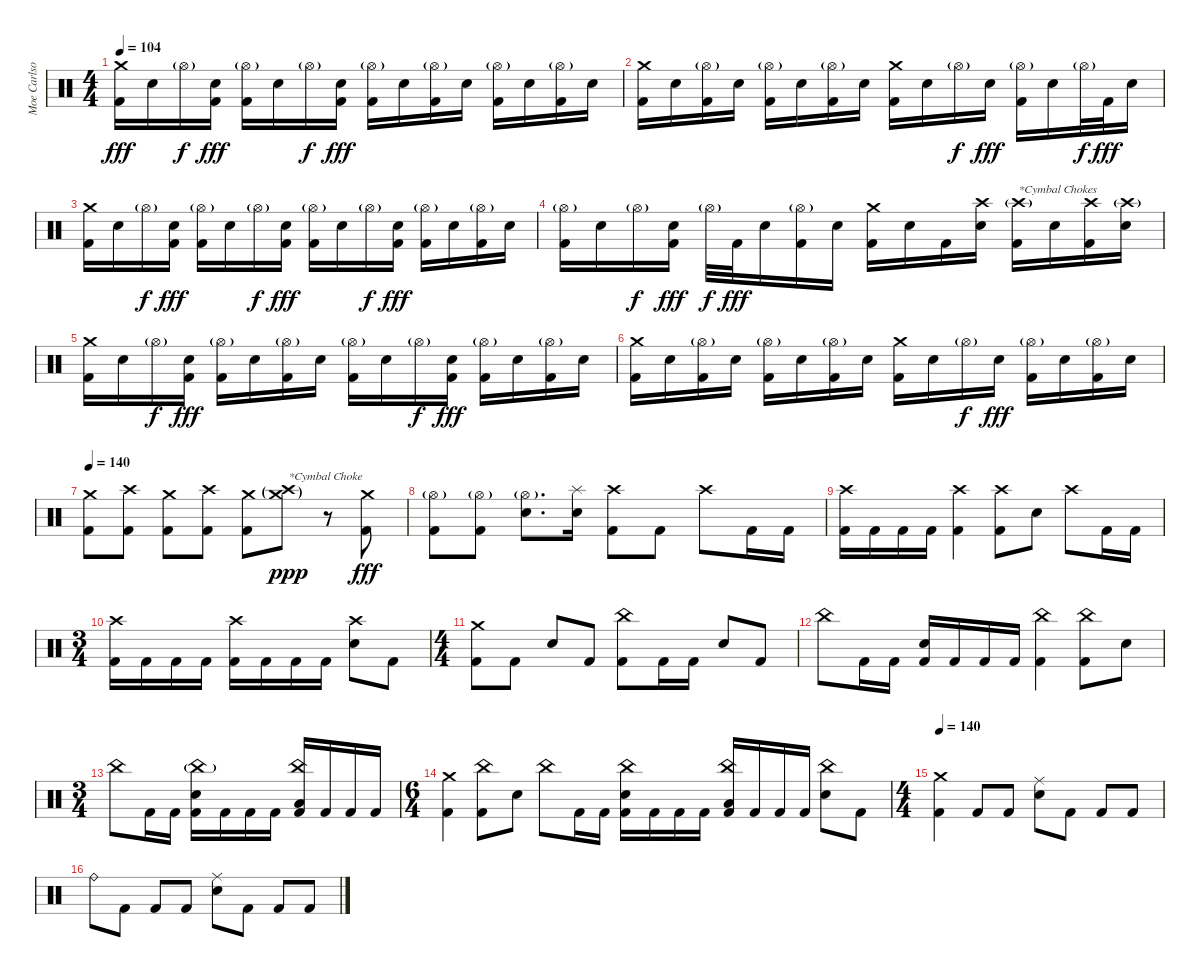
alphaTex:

\track ("Moe Carlson" "Moe Carlso") {instrument percussion}
\staff {score}
\articulation defaults
\ts (4 4)
\tempo 104
\clef neutral
\ks c
("Crash medium (hit)" "Kick (hit) 2").16{dy fff} "Electric Snare (hit)".16 "Hi-Hat (open)"{g}.16{dy f} ("Electric Snare (hit)" "Kick (hit) 2").16{dy fff} ("Hi-Hat (open)"{g} "Kick (hit) 2").16 "Electric Snare (hit)".16 "Hi-Hat (open)"{g}.16{dy f} ("Electric Snare (hit)" "Kick (hit) 2").16{dy fff} ("Hi-Hat (open)"{g} "Kick (hit) 2").16 "Electric Snare (hit)".16 ("Hi-Hat (open)"{g} "Kick (hit) 2").16 "Electric Snare (hit)".16 ("Hi-Hat (open)"{g} "Kick (hit) 2").16 "Electric Snare (hit)".16 ("Hi-Hat (open)"{g} "Kick (hit) 2").16 "Electric Snare (hit)".16 |
("Crash medium (hit)" "Kick (hit) 2").16 "Electric Snare (hit)".16 ("Hi-Hat (open)"{g} "Kick (hit) 2").16 "Electric Snare (hit)".16 ("Hi-Hat (open)"{g} "Kick (hit) 2").16 "Electric Snare (hit)".16 ("Hi-Hat (open)"{g} "Kick (hit) 2").16 "Electric Snare (hit)".16 ("Crash medium (hit)" "Kick (hit) 2").16 "Electric Snare (hit)".16 "Hi-Hat (open)"{g}.16{dy f} "Electric Snare (hit)".16{dy fff} ("Hi-Hat (open)"{g} "Kick (hit) 2").16 "Electric Snare (hit)".16 "Hi-Hat (open)"{g}.32{dy f} "Kick (hit) 2".32{dy fff} "Electric Snare (hit)".16 |
("Crash medium (hit)" "Kick (hit) 2").16 "Electric Snare (hit)".16 "Hi-Hat (open)"{g}.16{dy f} ("Electric Snare (hit)" "Kick (hit) 2").16{dy fff} ("Hi-Hat (open)"{g} "Kick (hit) 2").16 "Electric Snare (hit)".16 "Hi-Hat (open)"{g}.16{dy f} ("Electric Snare (hit)" "Kick (hit) 2").16{dy fff} ("Hi-Hat (open)"{g} "Kick (hit) 2").16 "Electric Snare (hit)".16 "Hi-Hat (open)"{g}.16{dy f} ("Electric Snare (hit)" "Kick (hit) 2").16{dy fff} ("Hi-Hat (open)"{g} "Kick (hit) 2").16 "Electric Snare (hit)".16 ("Hi-Hat (open)"{g} "Kick (hit) 2").16 "Electric Snare (hit)".16 |
("Hi-Hat (open)"{g} "Kick (hit) 2").16 "Electric Snare (hit)".16 "Hi-Hat (open)"{g}.16{dy f} ("Electric Snare (hit)" "Kick (hit) 2").16{dy fff} "Hi-Hat (open)"{g}.32{dy f} "Kick (hit) 2".32{dy fff} "Electric Snare (hit)".16 ("Hi-Hat (open)"{g} "Kick (hit) 2").16 "Electric Snare (hit)".16 ("Crash medium (hit)" "Kick (hit) 2").16 "Electric Snare (hit)".16 "Kick (hit) 2".16 ("Crash high (hit)" "Electric Snare (hit)").16 ("Crash high (hit)"{g} "Kick (hit) 2").16{txt "*Cymbal Chokes"} "Electric Snare (hit)".16 ("Crash high (hit)" "Kick (hit) 2").16 ("Crash high (hit)"{g} "Electric Snare (hit)").16 |
("Crash medium (hit)" "Kick (hit) 2").16 "Electric Snare (hit)".16 "Hi-Hat (open)"{g}.16{dy f} ("Electric Snare (hit)" "Kick (hit) 2").16{dy fff} ("Hi-Hat (open)"{g} "Kick (hit) 2").16 "Electric Snare (hit)".16 ("Hi-Hat (open)"{g} "Kick (hit) 2").16 "Electric Snare (hit)".16 ("Hi-Hat (open)"{g} "Kick (hit) 2").16 "Electric Snare (hit)".16 "Hi-Hat (open)"{g}.16{dy f} ("Electric Snare (hit)" "Kick (hit) 2").16{dy fff} ("Hi-Hat (open)"{g} "Kick (hit) 2").16 "Electric Snare (hit)".16 ("Hi-Hat (open)"{g} "Kick (hit) 2").16 "Electric Snare (hit)".16 |
("Crash medium (hit)" "Kick (hit) 2").16 "Electric Snare (hit)".16 ("Hi-Hat (open)"{g} "Kick (hit) 2").16 "Electric Snare (hit)".16 ("Hi-Hat (open)"{g} "Kick (hit) 2").16 "Electric Snare (hit)".16 ("Hi-Hat (open)"{g} "Kick (hit) 2").16 "Electric Snare (hit)".16 ("Crash medium (hit)" "Kick (hit) 2").16 "Electric Snare (hit)".16 "Hi-Hat (open)"{g}.16{dy f} "Electric Snare (hit)".16{dy fff} ("Hi-Hat (open)"{g} "Kick (hit) 2").16 "Electric Snare (hit)".16 ("Hi-Hat (open)"{g} "Kick (hit) 2").16 "Electric Snare (hit)".16 |
\tempo 140
("Crash medium (hit)" "Kick (hit) 2").8 ("Crash high (hit)" "Kick (hit) 2").8 ("Crash medium (hit)" "Kick (hit) 2").8 ("Crash high (hit)" "Kick (hit) 2").8 ("Crash medium (hit)" "Kick (hit) 2").8 ("Crash medium (hit)"{g} "Crash high (hit)"{g}).8{txt "*Cymbal Choke" dy ppp} r.8 ("Crash medium (hit)" "Kick (hit) 2").8{dy fff} |
("Hi-Hat (open)"{g} "Kick (hit) 2").8 ("Hi-Hat (open)"{g} "Kick (hit) 2").8 ("Hi-Hat (open)"{g} "Electric Snare (hit)").8{d} ("Splash (hit)" "Electric Snare (hit)").16 ("Crash high (hit)" "Kick (hit) 2").8 "Kick (hit) 2".8 "Crash high (hit)".8 "Kick (hit) 2".16 "Kick (hit) 2".16 |
("Crash high (hit)" "Kick (hit) 2").16 "Kick (hit) 2".16 "Kick (hit) 2".16 "Kick (hit) 2".16 ("Crash high (hit)" "Kick (hit) 2").4 ("Crash high (hit)" "Kick (hit) 2").8 "Electric Snare (hit)".8 "Crash high (hit)".8 "Kick (hit) 2".16 "Kick (hit) 2".16 |
\ts (3 4)
("Crash high (hit)" "Kick (hit) 2").16 "Kick (hit) 2".16 "Kick (hit) 2".16 "Kick (hit) 2".16 ("Crash high (hit)" "Kick (hit) 2").16 "Kick (hit) 2".16 "Kick (hit) 2".16 "Kick (hit) 2".16 ("Crash high (hit)" "Electric Snare (hit)").8 "Kick (hit) 2".8 |
\ts (4 4)
("Crash medium (hit)" "Kick (hit) 2").8 "Kick (hit) 2".8 "Electric Snare (hit)".8 "Kick (hit) 2".8 ("China (hit)" "Kick (hit) 2").8 "Kick (hit) 2".16 "Kick (hit) 2".16 "Electric Snare (hit)".8 "Kick (hit) 2".8 |
"China (hit)".8 "Kick (hit) 2".16 "Kick (hit) 2".16 ("Electric Snare (hit)" "Kick (hit) 2").16 "Kick (hit) 2".16 "Kick (hit) 2".16 "Kick (hit) 2".16 ("China (hit)" "Kick (hit) 2").4 ("China (hit)" "Kick (hit) 2").8 "Electric Snare (hit)".8 |
\ts (3 4)
"China (hit)".8 "Kick (hit) 2".16 "Kick (hit) 2".16 ("China (hit)"{g} "Electric Snare (hit)" "Kick (hit) 2").16 "Kick (hit) 2".16 "Kick (hit) 2".16 "Kick (hit) 2".16 ("China (hit)" "Low Tom (hit)" "Kick (hit) 2").16 "Kick (hit) 2".16 "Kick (hit) 2".16 "Kick (hit) 2".16 |
\ts (6 4)
("Crash medium (hit)" "Kick (hit) 2").4 ("China (hit)" "Kick (hit) 2").8 "Electric Snare (hit)".8 "China (hit)".8 "Kick (hit) 2".16 "Kick (hit) 2".16 ("China (hit)" "Electric Snare (hit)" "Kick (hit) 2").16 "Kick (hit) 2".16 "Kick (hit) 2".16 "Kick (hit) 2".16 ("China (hit)" "Low Tom (hit)" "Kick (hit) 2").16 "Kick (hit) 2".16 "Kick (hit) 2".16 "Kick (hit) 2".16 ("China (hit)" "Electric Snare (hit)").8 "Kick (hit) 2".8 |
\ts (4 4)
\tempo 140
("Crash medium (hit)" "Kick (hit) 2").4 "Kick (hit) 2".8 "Kick (hit) 2".8 ("Ride (middle)" "Electric Snare (hit)").8 "Kick (hit) 2".8 "Kick (hit) 2".8 "Kick (hit) 2".8 |
"Ride (bell)".8 "Kick (hit) 2".8 "Kick (hit) 2".8 "Kick (hit) 2".8 ("Ride (middle)" "Electric Snare (hit)").8 "Kick (hit) 2".8 "Kick (hit) 2".8 "Kick (hit) 2".8
